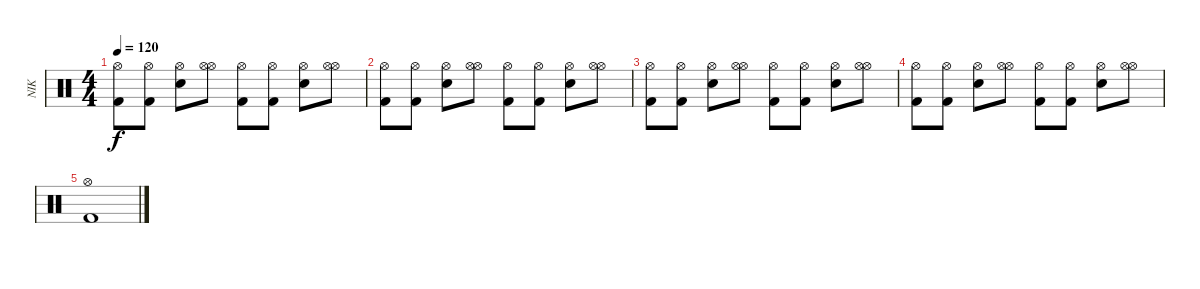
\track ("NIK" "NIK") {instrument percussion}
\staff {score}
\articulation defaults
\ts (4 4)
\tempo 120
\clef neutral
\ks c
("Kick (hit) 2" "Hi-Hat (open)").8{dy f} ("Kick (hit) 2" "Hi-Hat (open)").8 ("Electric Snare (hit)" "Hi-Hat (open)").8 ("Hi-Hat (open)" "Hi-Hat (open)").8 ("Kick (hit) 2" "Hi-Hat (open)").8 ("Kick (hit) 2" "Hi-Hat (open)").8 ("Electric Snare (hit)" "Hi-Hat (open)").8 ("Hi-Hat (open)" "Hi-Hat (open)").8 |
("Kick (hit) 2" "Hi-Hat (open)").8 ("Kick (hit) 2" "Hi-Hat (open)").8 ("Electric Snare (hit)" "Hi-Hat (open)").8 ("Hi-Hat (open)" "Hi-Hat (open)").8 ("Kick (hit) 2" "Hi-Hat (open)").8 ("Kick (hit) 2" "Hi-Hat (open)").8 ("Electric Snare (hit)" "Hi-Hat (open)").8 ("Hi-Hat (open)" "Hi-Hat (open)").8 |
("Kick (hit) 2" "Hi-Hat (open)").8 ("Kick (hit) 2" "Hi-Hat (open)").8 ("Electric Snare (hit)" "Hi-Hat (open)").8 ("Hi-Hat (open)" "Hi-Hat (open)").8 ("Kick (hit) 2" "Hi-Hat (open)").8 ("Kick (hit) 2" "Hi-Hat (open)").8 ("Electric Snare (hit)" "Hi-Hat (open)").8 ("Hi-Hat (open)" "Hi-Hat (open)").8 |
("Kick (hit) 2" "Hi-Hat (open)").8 ("Kick (hit) 2" "Hi-Hat (open)").8 ("Electric Snare (hit)" "Hi-Hat (open)").8 ("Hi-Hat (open)" "Hi-Hat (open)").8 ("Kick (hit) 2" "Hi-Hat (open)").8 ("Kick (hit) 2" "Hi-Hat (open)").8 ("Electric Snare (hit)" "Hi-Hat (open)").8 ("Hi-Hat (open)" "Hi-Hat (open)").8 |
("Kick (hit) 2" "Hi-Hat (open)").1
